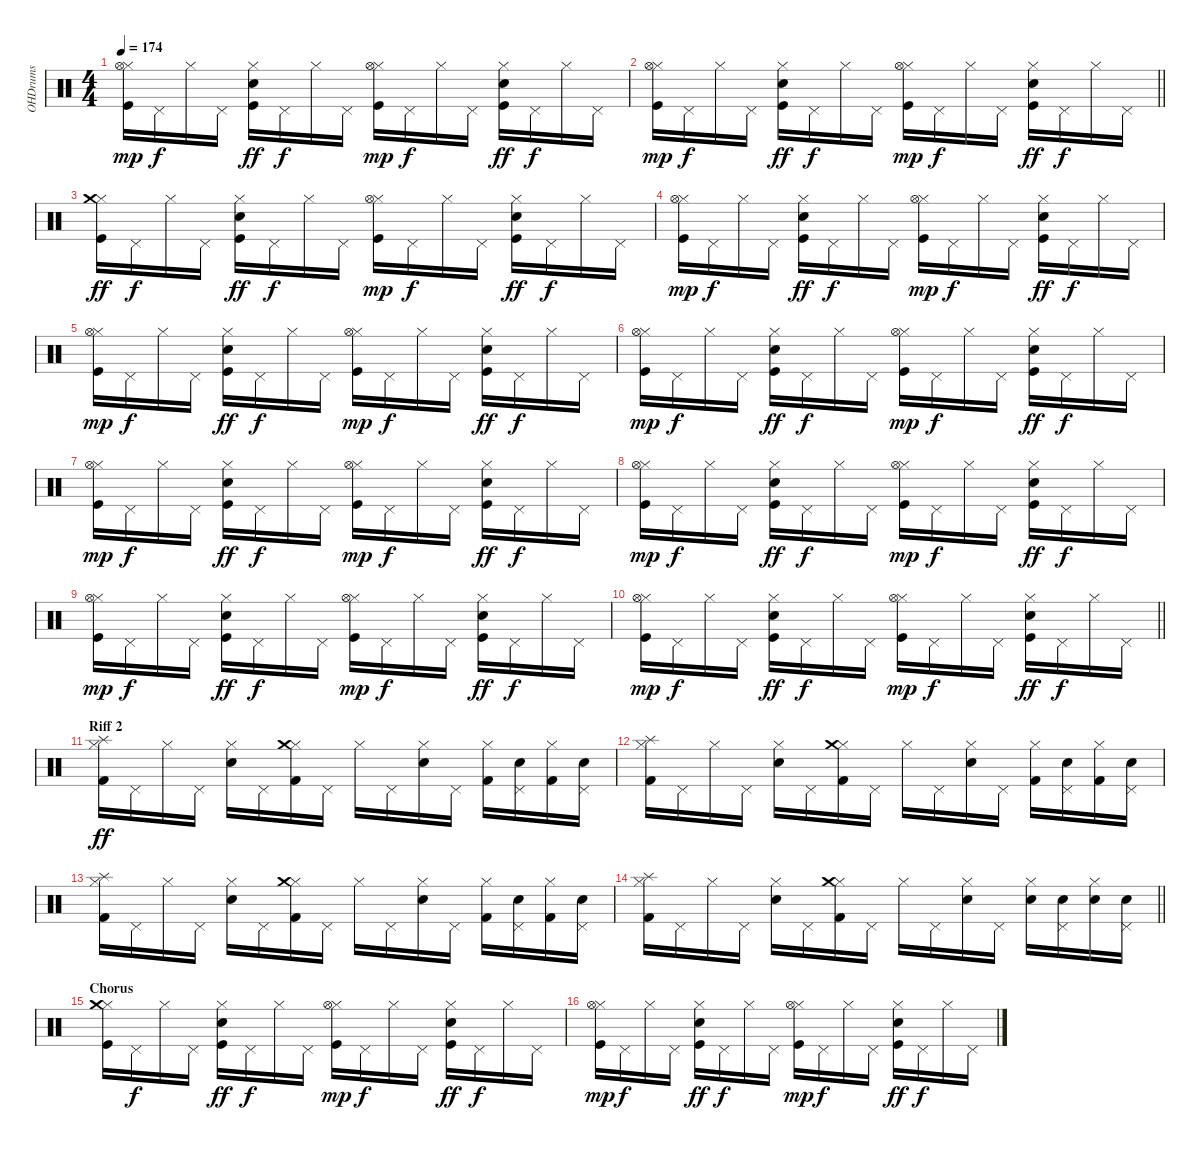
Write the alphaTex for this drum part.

\track ("OHDrums" "OHDrums") {instrument percussion}
\staff {score}
\articulation defaults
\ts (4 4)
\tempo 174
\clef neutral
\ks c
("Kick (hit)" "Hi-Hat (closed)" "Hi-Hat (open)").16{dy mp} "Pedal Hi-Hat (hit)".16{dy f} "Hi-Hat (closed)".16 "Pedal Hi-Hat (hit)".16 ("Kick (hit)" "Electric Snare (hit)" "Hi-Hat (closed)").16{dy ff} "Pedal Hi-Hat (hit)".16{dy f} "Hi-Hat (closed)".16 "Pedal Hi-Hat (hit)".16 ("Kick (hit)" "Hi-Hat (closed)" "Hi-Hat (open)").16{dy mp} "Pedal Hi-Hat (hit)".16{dy f} "Hi-Hat (closed)".16 "Pedal Hi-Hat (hit)".16 ("Kick (hit)" "Electric Snare (hit)" "Hi-Hat (closed)").16{dy ff} "Pedal Hi-Hat (hit)".16{dy f} "Hi-Hat (closed)".16 "Pedal Hi-Hat (hit)".16 |
\barLineRight lightlight
("Kick (hit)" "Hi-Hat (closed)" "Hi-Hat (open)").16{dy mp} "Pedal Hi-Hat (hit)".16{dy f} "Hi-Hat (closed)".16 "Pedal Hi-Hat (hit)".16 ("Kick (hit)" "Electric Snare (hit)" "Hi-Hat (closed)").16{dy ff} "Pedal Hi-Hat (hit)".16{dy f} "Hi-Hat (closed)".16 "Pedal Hi-Hat (hit)".16 ("Kick (hit)" "Hi-Hat (closed)" "Hi-Hat (open)").16{dy mp} "Pedal Hi-Hat (hit)".16{dy f} "Hi-Hat (closed)".16 "Pedal Hi-Hat (hit)".16 ("Kick (hit)" "Electric Snare (hit)" "Hi-Hat (closed)").16{dy ff} "Pedal Hi-Hat (hit)".16{dy f} "Hi-Hat (closed)".16 "Pedal Hi-Hat (hit)".16 |
("Kick (hit)" "Hi-Hat (closed)" "Crash medium (hit)").16{dy ff} "Pedal Hi-Hat (hit)".16{dy f} "Hi-Hat (closed)".16 "Pedal Hi-Hat (hit)".16 ("Kick (hit)" "Electric Snare (hit)" "Hi-Hat (closed)").16{dy ff} "Pedal Hi-Hat (hit)".16{dy f} "Hi-Hat (closed)".16 "Pedal Hi-Hat (hit)".16 ("Kick (hit)" "Hi-Hat (closed)" "Hi-Hat (open)").16{dy mp} "Pedal Hi-Hat (hit)".16{dy f} "Hi-Hat (closed)".16 "Pedal Hi-Hat (hit)".16 ("Kick (hit)" "Electric Snare (hit)" "Hi-Hat (closed)").16{dy ff} "Pedal Hi-Hat (hit)".16{dy f} "Hi-Hat (closed)".16 "Pedal Hi-Hat (hit)".16 |
("Kick (hit)" "Hi-Hat (closed)" "Hi-Hat (open)").16{dy mp} "Pedal Hi-Hat (hit)".16{dy f} "Hi-Hat (closed)".16 "Pedal Hi-Hat (hit)".16 ("Kick (hit)" "Electric Snare (hit)" "Hi-Hat (closed)").16{dy ff} "Pedal Hi-Hat (hit)".16{dy f} "Hi-Hat (closed)".16 "Pedal Hi-Hat (hit)".16 ("Kick (hit)" "Hi-Hat (closed)" "Hi-Hat (open)").16{dy mp} "Pedal Hi-Hat (hit)".16{dy f} "Hi-Hat (closed)".16 "Pedal Hi-Hat (hit)".16 ("Kick (hit)" "Electric Snare (hit)" "Hi-Hat (closed)").16{dy ff} "Pedal Hi-Hat (hit)".16{dy f} "Hi-Hat (closed)".16 "Pedal Hi-Hat (hit)".16 |
("Kick (hit)" "Hi-Hat (closed)" "Hi-Hat (open)").16{dy mp} "Pedal Hi-Hat (hit)".16{dy f} "Hi-Hat (closed)".16 "Pedal Hi-Hat (hit)".16 ("Kick (hit)" "Electric Snare (hit)" "Hi-Hat (closed)").16{dy ff} "Pedal Hi-Hat (hit)".16{dy f} "Hi-Hat (closed)".16 "Pedal Hi-Hat (hit)".16 ("Kick (hit)" "Hi-Hat (closed)" "Hi-Hat (open)").16{dy mp} "Pedal Hi-Hat (hit)".16{dy f} "Hi-Hat (closed)".16 "Pedal Hi-Hat (hit)".16 ("Kick (hit)" "Electric Snare (hit)" "Hi-Hat (closed)").16{dy ff} "Pedal Hi-Hat (hit)".16{dy f} "Hi-Hat (closed)".16 "Pedal Hi-Hat (hit)".16 |
("Kick (hit)" "Hi-Hat (closed)" "Hi-Hat (open)").16{dy mp} "Pedal Hi-Hat (hit)".16{dy f} "Hi-Hat (closed)".16 "Pedal Hi-Hat (hit)".16 ("Kick (hit)" "Electric Snare (hit)" "Hi-Hat (closed)").16{dy ff} "Pedal Hi-Hat (hit)".16{dy f} "Hi-Hat (closed)".16 "Pedal Hi-Hat (hit)".16 ("Kick (hit)" "Hi-Hat (closed)" "Hi-Hat (open)").16{dy mp} "Pedal Hi-Hat (hit)".16{dy f} "Hi-Hat (closed)".16 "Pedal Hi-Hat (hit)".16 ("Kick (hit)" "Electric Snare (hit)" "Hi-Hat (closed)").16{dy ff} "Pedal Hi-Hat (hit)".16{dy f} "Hi-Hat (closed)".16 "Pedal Hi-Hat (hit)".16 |
("Kick (hit)" "Hi-Hat (closed)" "Hi-Hat (open)").16{dy mp} "Pedal Hi-Hat (hit)".16{dy f} "Hi-Hat (closed)".16 "Pedal Hi-Hat (hit)".16 ("Kick (hit)" "Electric Snare (hit)" "Hi-Hat (closed)").16{dy ff} "Pedal Hi-Hat (hit)".16{dy f} "Hi-Hat (closed)".16 "Pedal Hi-Hat (hit)".16 ("Kick (hit)" "Hi-Hat (closed)" "Hi-Hat (open)").16{dy mp} "Pedal Hi-Hat (hit)".16{dy f} "Hi-Hat (closed)".16 "Pedal Hi-Hat (hit)".16 ("Kick (hit)" "Electric Snare (hit)" "Hi-Hat (closed)").16{dy ff} "Pedal Hi-Hat (hit)".16{dy f} "Hi-Hat (closed)".16 "Pedal Hi-Hat (hit)".16 |
("Kick (hit)" "Hi-Hat (closed)" "Hi-Hat (open)").16{dy mp} "Pedal Hi-Hat (hit)".16{dy f} "Hi-Hat (closed)".16 "Pedal Hi-Hat (hit)".16 ("Kick (hit)" "Electric Snare (hit)" "Hi-Hat (closed)").16{dy ff} "Pedal Hi-Hat (hit)".16{dy f} "Hi-Hat (closed)".16 "Pedal Hi-Hat (hit)".16 ("Kick (hit)" "Hi-Hat (closed)" "Hi-Hat (open)").16{dy mp} "Pedal Hi-Hat (hit)".16{dy f} "Hi-Hat (closed)".16 "Pedal Hi-Hat (hit)".16 ("Kick (hit)" "Electric Snare (hit)" "Hi-Hat (closed)").16{dy ff} "Pedal Hi-Hat (hit)".16{dy f} "Hi-Hat (closed)".16 "Pedal Hi-Hat (hit)".16 |
("Kick (hit)" "Hi-Hat (closed)" "Hi-Hat (open)").16{dy mp} "Pedal Hi-Hat (hit)".16{dy f} "Hi-Hat (closed)".16 "Pedal Hi-Hat (hit)".16 ("Kick (hit)" "Electric Snare (hit)" "Hi-Hat (closed)").16{dy ff} "Pedal Hi-Hat (hit)".16{dy f} "Hi-Hat (closed)".16 "Pedal Hi-Hat (hit)".16 ("Kick (hit)" "Hi-Hat (closed)" "Hi-Hat (open)").16{dy mp} "Pedal Hi-Hat (hit)".16{dy f} "Hi-Hat (closed)".16 "Pedal Hi-Hat (hit)".16 ("Kick (hit)" "Electric Snare (hit)" "Hi-Hat (closed)").16{dy ff} "Pedal Hi-Hat (hit)".16{dy f} "Hi-Hat (closed)".16 "Pedal Hi-Hat (hit)".16 |
\barLineRight lightlight
("Kick (hit)" "Hi-Hat (closed)" "Hi-Hat (open)").16{dy mp} "Pedal Hi-Hat (hit)".16{dy f} "Hi-Hat (closed)".16 "Pedal Hi-Hat (hit)".16 ("Kick (hit)" "Electric Snare (hit)" "Hi-Hat (closed)").16{dy ff} "Pedal Hi-Hat (hit)".16{dy f} "Hi-Hat (closed)".16 "Pedal Hi-Hat (hit)".16 ("Kick (hit)" "Hi-Hat (closed)" "Hi-Hat (open)").16{dy mp} "Pedal Hi-Hat (hit)".16{dy f} "Hi-Hat (closed)".16 "Pedal Hi-Hat (hit)".16 ("Kick (hit)" "Electric Snare (hit)" "Hi-Hat (closed)").16{dy ff} "Pedal Hi-Hat (hit)".16{dy f} "Hi-Hat (closed)".16 "Pedal Hi-Hat (hit)".16 |
\section ("" "Riff 2")
("Kick (hit) 2" "Hi-Hat (closed)" "Splash (hit)").16{dy ff} "Pedal Hi-Hat (hit)".16 "Hi-Hat (closed)".16 "Pedal Hi-Hat (hit)".16 ("Electric Snare (hit)" "Hi-Hat (closed)").16 "Pedal Hi-Hat (hit)".16 ("Kick (hit) 2" "Hi-Hat (closed)" "Crash medium (hit)").16 "Pedal Hi-Hat (hit)".16 "Hi-Hat (closed)".16 "Pedal Hi-Hat (hit)".16 ("Electric Snare (hit)" "Hi-Hat (closed)").16 "Pedal Hi-Hat (hit)".16 ("Kick (hit) 2" "Hi-Hat (closed)").16 ("Electric Snare (hit)" "Pedal Hi-Hat (hit)").16 ("Kick (hit) 2" "Hi-Hat (closed)").16 ("Electric Snare (hit)" "Pedal Hi-Hat (hit)").16 |
("Kick (hit) 2" "Hi-Hat (closed)" "Splash (hit)").16 "Pedal Hi-Hat (hit)".16 "Hi-Hat (closed)".16 "Pedal Hi-Hat (hit)".16 ("Electric Snare (hit)" "Hi-Hat (closed)").16 "Pedal Hi-Hat (hit)".16 ("Kick (hit) 2" "Hi-Hat (closed)" "Crash medium (hit)").16 "Pedal Hi-Hat (hit)".16 "Hi-Hat (closed)".16 "Pedal Hi-Hat (hit)".16 ("Electric Snare (hit)" "Hi-Hat (closed)").16 "Pedal Hi-Hat (hit)".16 ("Kick (hit) 2" "Hi-Hat (closed)").16 ("Electric Snare (hit)" "Pedal Hi-Hat (hit)").16 ("Kick (hit) 2" "Hi-Hat (closed)").16 ("Electric Snare (hit)" "Pedal Hi-Hat (hit)").16 |
("Kick (hit) 2" "Hi-Hat (closed)" "Splash (hit)").16 "Pedal Hi-Hat (hit)".16 "Hi-Hat (closed)".16 "Pedal Hi-Hat (hit)".16 ("Electric Snare (hit)" "Hi-Hat (closed)").16 "Pedal Hi-Hat (hit)".16 ("Kick (hit) 2" "Hi-Hat (closed)" "Crash medium (hit)").16 "Pedal Hi-Hat (hit)".16 "Hi-Hat (closed)".16 "Pedal Hi-Hat (hit)".16 ("Electric Snare (hit)" "Hi-Hat (closed)").16 "Pedal Hi-Hat (hit)".16 ("Kick (hit) 2" "Hi-Hat (closed)").16 ("Electric Snare (hit)" "Pedal Hi-Hat (hit)").16 ("Kick (hit) 2" "Hi-Hat (closed)").16 ("Electric Snare (hit)" "Pedal Hi-Hat (hit)").16 |
\barLineRight lightlight
("Kick (hit) 2" "Hi-Hat (closed)" "Splash (hit)").16 "Pedal Hi-Hat (hit)".16 "Hi-Hat (closed)".16 "Pedal Hi-Hat (hit)".16 ("Electric Snare (hit)" "Hi-Hat (closed)").16 "Pedal Hi-Hat (hit)".16 ("Kick (hit) 2" "Hi-Hat (closed)" "Crash medium (hit)").16 "Pedal Hi-Hat (hit)".16 "Hi-Hat (closed)".16 "Pedal Hi-Hat (hit)".16 ("Electric Snare (hit)" "Hi-Hat (closed)").16 "Pedal Hi-Hat (hit)".16 ("Electric Snare (hit)" "Hi-Hat (closed)").16 ("Electric Snare (hit)" "Pedal Hi-Hat (hit)").16 ("Electric Snare (hit)" "Hi-Hat (closed)").16 ("Electric Snare (hit)" "Pedal Hi-Hat (hit)").16 |
\section ("" "Chorus")
("Kick (hit)" "Hi-Hat (closed)" "Crash medium (hit)").16 "Pedal Hi-Hat (hit)".16{dy f} "Hi-Hat (closed)".16 "Pedal Hi-Hat (hit)".16 ("Kick (hit)" "Electric Snare (hit)" "Hi-Hat (closed)").16{dy ff} "Pedal Hi-Hat (hit)".16{dy f} "Hi-Hat (closed)".16 "Pedal Hi-Hat (hit)".16 ("Kick (hit)" "Hi-Hat (closed)" "Hi-Hat (open)").16{dy mp} "Pedal Hi-Hat (hit)".16{dy f} "Hi-Hat (closed)".16 "Pedal Hi-Hat (hit)".16 ("Kick (hit)" "Electric Snare (hit)" "Hi-Hat (closed)").16{dy ff} "Pedal Hi-Hat (hit)".16{dy f} "Hi-Hat (closed)".16 "Pedal Hi-Hat (hit)".16 |
("Kick (hit)" "Hi-Hat (closed)" "Hi-Hat (open)").16{dy mp} "Pedal Hi-Hat (hit)".16{dy f} "Hi-Hat (closed)".16 "Pedal Hi-Hat (hit)".16 ("Kick (hit)" "Electric Snare (hit)" "Hi-Hat (closed)").16{dy ff} "Pedal Hi-Hat (hit)".16{dy f} "Hi-Hat (closed)".16 "Pedal Hi-Hat (hit)".16 ("Kick (hit)" "Hi-Hat (closed)" "Hi-Hat (open)").16{dy mp} "Pedal Hi-Hat (hit)".16{dy f} "Hi-Hat (closed)".16 "Pedal Hi-Hat (hit)".16 ("Kick (hit)" "Electric Snare (hit)" "Hi-Hat (closed)").16{dy ff} "Pedal Hi-Hat (hit)".16{dy f} "Hi-Hat (closed)".16 "Pedal Hi-Hat (hit)".16
